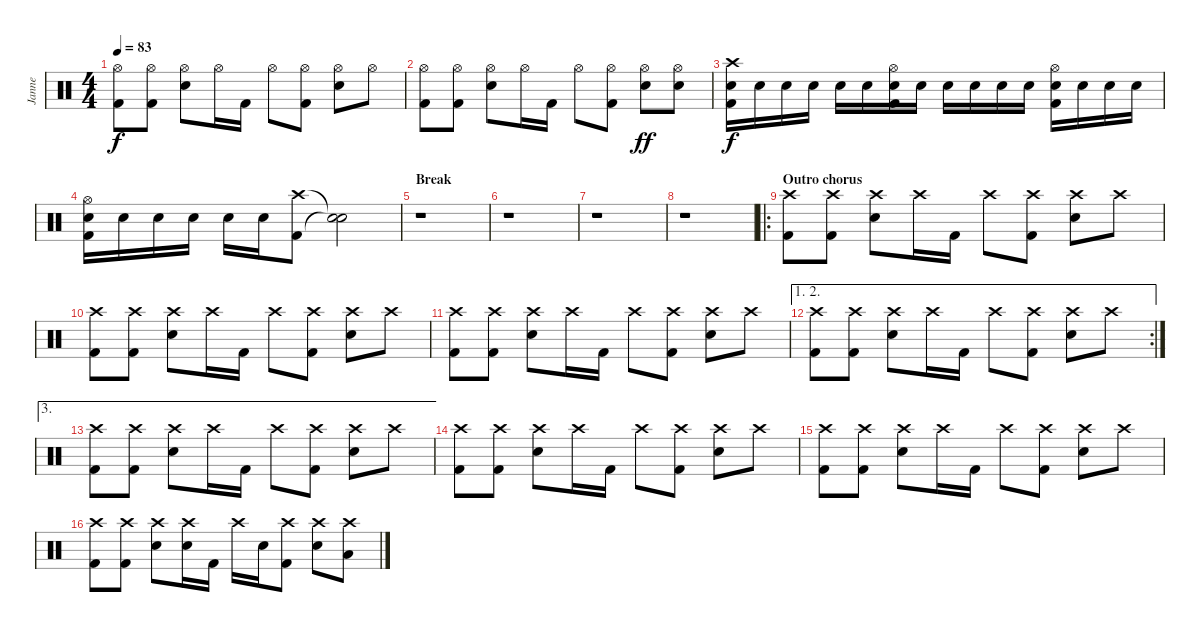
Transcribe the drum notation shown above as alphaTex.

\track ("Janne" "Janne") {instrument percussion}
\staff {score}
\articulation defaults
\ts (4 4)
\tempo 83
\clef neutral
\ks c
("Hi-Hat (open)" "Kick (hit) 2").8{dy f} ("Hi-Hat (open)" "Kick (hit) 2").8 ("Hi-Hat (open)" "Electric Snare (hit)").8 "Hi-Hat (open)".16 "Kick (hit) 2".16 "Hi-Hat (open)".8 ("Hi-Hat (open)" "Kick (hit) 2").8 ("Hi-Hat (open)" "Electric Snare (hit)").8 "Hi-Hat (open)".8 |
("Hi-Hat (open)" "Kick (hit) 2").8 ("Hi-Hat (open)" "Kick (hit) 2").8 ("Hi-Hat (open)" "Electric Snare (hit)").8 "Hi-Hat (open)".16 "Kick (hit) 2".16 "Hi-Hat (open)".8 ("Hi-Hat (open)" "Kick (hit) 2").8 ("Hi-Hat (open)" "Electric Snare (hit)").8{dy ff} ("Hi-Hat (open)" "Electric Snare (hit)").8 |
("Crash high (hit)" "Electric Snare (hit)" "Kick (hit) 2").16{dy f} "Electric Snare (hit)".16 "Electric Snare (hit)".16 "Electric Snare (hit)".16 "Electric Snare (hit)".16 "Electric Snare (hit)".16 ("Hi-Hat (open)" "Electric Snare (hit)" "Kick (hit) 2").16 "Electric Snare (hit)".16 "Electric Snare (hit)".16 "Electric Snare (hit)".16 "Electric Snare (hit)".16 "Electric Snare (hit)".16 ("Hi-Hat (open)" "Electric Snare (hit)" "Kick (hit) 2").16 "Electric Snare (hit)".16 "Electric Snare (hit)".16 "Electric Snare (hit)".16 |
("Hi-Hat (open)" "Electric Snare (hit)" "Kick (hit) 2").16 "Electric Snare (hit)".16 "Electric Snare (hit)".16 "Electric Snare (hit)".16 "Electric Snare (hit)".16 "Electric Snare (hit)".16 ("Crash high (hit)" "Kick (hit) 2").8 ("Snare (hit)"{t} "Snare (hit)"{t}).2 |
\section ("" "Break")
r.1 |
r.1 |
r.1 |
r.1 |
\ro
\section ("" "Outro chorus")
("Crash high (hit)" "Kick (hit) 2").8 ("Crash high (hit)" "Kick (hit) 2").8 ("Crash high (hit)" "Electric Snare (hit)").8 "Crash high (hit)".16 "Kick (hit) 2".16 "Crash high (hit)".8 ("Crash high (hit)" "Kick (hit) 2").8 ("Crash high (hit)" "Electric Snare (hit)").8 "Crash high (hit)".8 |
("Crash high (hit)" "Kick (hit) 2").8 ("Crash high (hit)" "Kick (hit) 2").8 ("Crash high (hit)" "Electric Snare (hit)").8 "Crash high (hit)".16 "Kick (hit) 2".16 "Crash high (hit)".8 ("Crash high (hit)" "Kick (hit) 2").8 ("Crash high (hit)" "Electric Snare (hit)").8 "Crash high (hit)".8 |
("Crash high (hit)" "Kick (hit) 2").8 ("Crash high (hit)" "Kick (hit) 2").8 ("Crash high (hit)" "Electric Snare (hit)").8 "Crash high (hit)".16 "Kick (hit) 2".16 "Crash high (hit)".8 ("Crash high (hit)" "Kick (hit) 2").8 ("Crash high (hit)" "Electric Snare (hit)").8 "Crash high (hit)".8 |
\ae (1 2)
\rc 2
("Crash high (hit)" "Kick (hit) 2").8 ("Crash high (hit)" "Kick (hit) 2").8 ("Crash high (hit)" "Electric Snare (hit)").8 "Crash high (hit)".16 "Kick (hit) 2".16 "Crash high (hit)".8 ("Crash high (hit)" "Kick (hit) 2").8 ("Crash high (hit)" "Electric Snare (hit)").8 "Crash high (hit)".8 |
\ae 3
("Crash high (hit)" "Kick (hit) 2").8 ("Crash high (hit)" "Kick (hit) 2").8 ("Crash high (hit)" "Electric Snare (hit)").8 "Crash high (hit)".16 "Kick (hit) 2".16 "Crash high (hit)".8 ("Crash high (hit)" "Kick (hit) 2").8 ("Crash high (hit)" "Electric Snare (hit)").8 "Crash high (hit)".8 |
("Crash high (hit)" "Kick (hit) 2").8 ("Crash high (hit)" "Kick (hit) 2").8 ("Crash high (hit)" "Electric Snare (hit)").8 "Crash high (hit)".16 "Kick (hit) 2".16 "Crash high (hit)".8 ("Crash high (hit)" "Kick (hit) 2").8 ("Crash high (hit)" "Electric Snare (hit)").8 "Crash high (hit)".8 |
("Crash high (hit)" "Kick (hit) 2").8 ("Crash high (hit)" "Kick (hit) 2").8 ("Crash high (hit)" "Electric Snare (hit)").8 "Crash high (hit)".16 "Kick (hit) 2".16 "Crash high (hit)".8 ("Crash high (hit)" "Kick (hit) 2").8 ("Crash high (hit)" "Electric Snare (hit)").8 "Crash high (hit)".8 |
("Crash high (hit)" "Kick (hit) 2").8 ("Crash high (hit)" "Kick (hit) 2").8 ("Crash high (hit)" "Electric Snare (hit)").8 ("Crash high (hit)" "Electric Snare (hit)").16 "Kick (hit) 2".16 "Crash high (hit)".16 "Electric Snare (hit)".16 ("Crash high (hit)" "Kick (hit) 2").8 ("Crash high (hit)" "Electric Snare (hit)").8 ("Crash high (hit)" "Low Floor Tom (hit)").8
